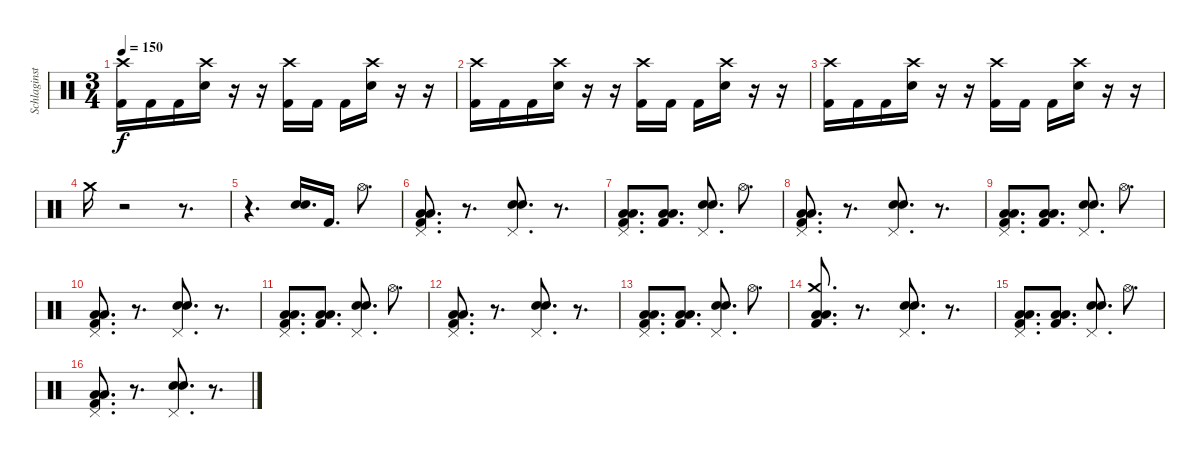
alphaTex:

\track ("Schlaginstrumente - Auswahl" "Schlaginst") {instrument percussion}
\staff {score}
\articulation defaults
\ts (3 4)
\tempo 150
\clef neutral
\ks c
("Crash high (hit)" "Kick (hit) 2").16{dy f} "Kick (hit) 2".16 "Kick (hit) 2".16 ("Crash high (hit)" "Snare (hit) 2").16 r.16 r.16 ("Crash high (hit)" "Kick (hit) 2").16 "Kick (hit) 2".16 "Kick (hit) 2".16 ("Crash high (hit)" "Snare (hit) 2").16 r.16 r.16 |
("Crash high (hit)" "Kick (hit) 2").16 "Kick (hit) 2".16 "Kick (hit) 2".16 ("Crash high (hit)" "Snare (hit) 2").16 r.16 r.16 ("Crash high (hit)" "Kick (hit) 2").16 "Kick (hit) 2".16 "Kick (hit) 2".16 ("Crash high (hit)" "Snare (hit) 2").16 r.16 r.16 |
("Crash high (hit)" "Kick (hit) 2").16 "Kick (hit) 2".16 "Kick (hit) 2".16 ("Crash high (hit)" "Snare (hit) 2").16 r.16 r.16 ("Crash high (hit)" "Kick (hit) 2").16 "Kick (hit) 2".16 "Kick (hit) 2".16 ("Crash high (hit)" "Snare (hit) 2").16 r.16 r.16 |
"Crash medium (hit)".16 r.2 r.8{d} |
r.4{d} ("Snare (hit) 2" "Snare (hit) 2").16{d} "Kick (hit) 2".16{d} "Hi-Hat (open)".8{d} |
("Pedal Hi-Hat (hit)" "Low Tom (hit)" "Low Tom (hit)" "Kick (hit) 2").8{d} r.8{d} ("Pedal Hi-Hat (hit)" "Snare (hit) 2" "Snare (hit) 2").8{d} r.8{d} |
("Pedal Hi-Hat (hit)" "Low Tom (hit)" "Low Tom (hit)" "Kick (hit) 2").8{d} ("Low Tom (hit)" "Low Tom (hit)" "Kick (hit) 2").8{d} ("Pedal Hi-Hat (hit)" "Snare (hit) 2" "Snare (hit) 2").8{d} "Hi-Hat (open)".8{d} |
("Pedal Hi-Hat (hit)" "Low Tom (hit)" "Low Tom (hit)" "Kick (hit) 2").8{d} r.8{d} ("Pedal Hi-Hat (hit)" "Snare (hit) 2" "Snare (hit) 2").8{d} r.8{d} |
("Pedal Hi-Hat (hit)" "Low Tom (hit)" "Low Tom (hit)" "Kick (hit) 2").8{d} ("Low Tom (hit)" "Low Tom (hit)" "Kick (hit) 2").8{d} ("Pedal Hi-Hat (hit)" "Snare (hit) 2" "Snare (hit) 2").8{d} "Hi-Hat (open)".8{d} |
("Pedal Hi-Hat (hit)" "Low Tom (hit)" "Low Tom (hit)" "Kick (hit) 2").8{d} r.8{d} ("Pedal Hi-Hat (hit)" "Snare (hit) 2" "Snare (hit) 2").8{d} r.8{d} |
("Pedal Hi-Hat (hit)" "Low Tom (hit)" "Low Tom (hit)" "Kick (hit) 2").8{d} ("Low Tom (hit)" "Low Tom (hit)" "Kick (hit) 2").8{d} ("Pedal Hi-Hat (hit)" "Snare (hit) 2" "Snare (hit) 2").8{d} "Hi-Hat (open)".8{d} |
("Pedal Hi-Hat (hit)" "Low Tom (hit)" "Low Tom (hit)" "Kick (hit) 2").8{d} r.8{d} ("Pedal Hi-Hat (hit)" "Snare (hit) 2" "Snare (hit) 2").8{d} r.8{d} |
("Pedal Hi-Hat (hit)" "Low Tom (hit)" "Low Tom (hit)" "Kick (hit) 2").8{d} ("Low Tom (hit)" "Low Tom (hit)" "Kick (hit) 2").8{d} ("Pedal Hi-Hat (hit)" "Snare (hit) 2" "Snare (hit) 2").8{d} "Hi-Hat (open)".8{d} |
("Crash medium (hit)" "Low Tom (hit)" "Low Tom (hit)" "Kick (hit) 2").8{d} r.8{d} ("Pedal Hi-Hat (hit)" "Snare (hit) 2" "Snare (hit) 2").8{d} r.8{d} |
("Pedal Hi-Hat (hit)" "Low Tom (hit)" "Low Tom (hit)" "Kick (hit) 2").8{d} ("Low Tom (hit)" "Low Tom (hit)" "Kick (hit) 2").8{d} ("Pedal Hi-Hat (hit)" "Snare (hit) 2" "Snare (hit) 2").8{d} "Hi-Hat (open)".8{d} |
("Pedal Hi-Hat (hit)" "Low Tom (hit)" "Low Tom (hit)" "Kick (hit) 2").8{d} r.8{d} ("Pedal Hi-Hat (hit)" "Snare (hit) 2" "Snare (hit) 2").8{d} r.8{d}
